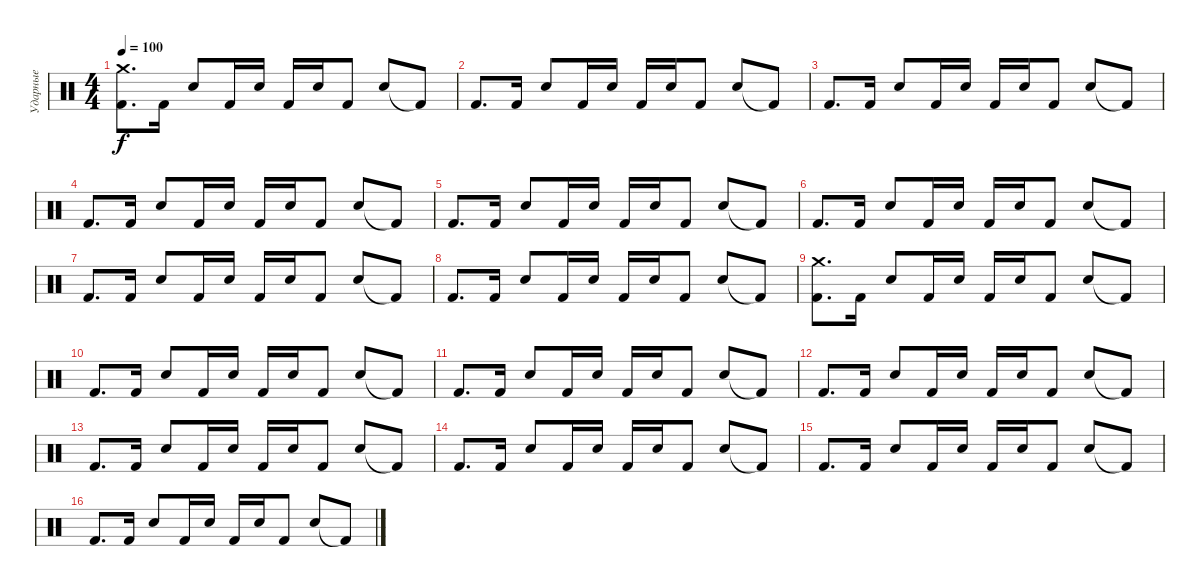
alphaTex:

\track ("Ударные" "Ударные") {instrument percussion}
\staff {score}
\articulation defaults
\ts (4 4)
\tempo 100
\clef neutral
\ks c
("Kick (hit) 2" "Crash medium (hit)").8{d dy f} "Kick (hit) 2".16 "Snare (hit) 2".8 "Kick (hit) 2".16 "Snare (hit) 2".16 "Kick (hit) 2".16 "Snare (hit) 2".16 "Kick (hit) 2".8 "Snare (hit) 2".8 "Kick (hit) 2"{t}.8 |
"Kick (hit) 2".8{d} "Kick (hit) 2".16 "Snare (hit) 2".8 "Kick (hit) 2".16 "Snare (hit) 2".16 "Kick (hit) 2".16 "Snare (hit) 2".16 "Kick (hit) 2".8 "Snare (hit) 2".8 "Kick (hit) 2"{t}.8 |
"Kick (hit) 2".8{d} "Kick (hit) 2".16 "Snare (hit) 2".8 "Kick (hit) 2".16 "Snare (hit) 2".16 "Kick (hit) 2".16 "Snare (hit) 2".16 "Kick (hit) 2".8 "Snare (hit) 2".8 "Kick (hit) 2"{t}.8 |
"Kick (hit) 2".8{d} "Kick (hit) 2".16 "Snare (hit) 2".8 "Kick (hit) 2".16 "Snare (hit) 2".16 "Kick (hit) 2".16 "Snare (hit) 2".16 "Kick (hit) 2".8 "Snare (hit) 2".8 "Kick (hit) 2"{t}.8 |
"Kick (hit) 2".8{d} "Kick (hit) 2".16 "Snare (hit) 2".8 "Kick (hit) 2".16 "Snare (hit) 2".16 "Kick (hit) 2".16 "Snare (hit) 2".16 "Kick (hit) 2".8 "Snare (hit) 2".8 "Kick (hit) 2"{t}.8 |
"Kick (hit) 2".8{d} "Kick (hit) 2".16 "Snare (hit) 2".8 "Kick (hit) 2".16 "Snare (hit) 2".16 "Kick (hit) 2".16 "Snare (hit) 2".16 "Kick (hit) 2".8 "Snare (hit) 2".8 "Kick (hit) 2"{t}.8 |
"Kick (hit) 2".8{d} "Kick (hit) 2".16 "Snare (hit) 2".8 "Kick (hit) 2".16 "Snare (hit) 2".16 "Kick (hit) 2".16 "Snare (hit) 2".16 "Kick (hit) 2".8 "Snare (hit) 2".8 "Kick (hit) 2"{t}.8 |
"Kick (hit) 2".8{d} "Kick (hit) 2".16 "Snare (hit) 2".8 "Kick (hit) 2".16 "Snare (hit) 2".16 "Kick (hit) 2".16 "Snare (hit) 2".16 "Kick (hit) 2".8 "Snare (hit) 2".8 "Kick (hit) 2"{t}.8 |
("Kick (hit) 2" "Crash medium (hit)").8{d} "Kick (hit) 2".16 "Snare (hit) 2".8 "Kick (hit) 2".16 "Snare (hit) 2".16 "Kick (hit) 2".16 "Snare (hit) 2".16 "Kick (hit) 2".8 "Snare (hit) 2".8 "Kick (hit) 2"{t}.8 |
"Kick (hit) 2".8{d} "Kick (hit) 2".16 "Snare (hit) 2".8 "Kick (hit) 2".16 "Snare (hit) 2".16 "Kick (hit) 2".16 "Snare (hit) 2".16 "Kick (hit) 2".8 "Snare (hit) 2".8 "Kick (hit) 2"{t}.8 |
"Kick (hit) 2".8{d} "Kick (hit) 2".16 "Snare (hit) 2".8 "Kick (hit) 2".16 "Snare (hit) 2".16 "Kick (hit) 2".16 "Snare (hit) 2".16 "Kick (hit) 2".8 "Snare (hit) 2".8 "Kick (hit) 2"{t}.8 |
"Kick (hit) 2".8{d} "Kick (hit) 2".16 "Snare (hit) 2".8 "Kick (hit) 2".16 "Snare (hit) 2".16 "Kick (hit) 2".16 "Snare (hit) 2".16 "Kick (hit) 2".8 "Snare (hit) 2".8 "Kick (hit) 2"{t}.8 |
"Kick (hit) 2".8{d} "Kick (hit) 2".16 "Snare (hit) 2".8 "Kick (hit) 2".16 "Snare (hit) 2".16 "Kick (hit) 2".16 "Snare (hit) 2".16 "Kick (hit) 2".8 "Snare (hit) 2".8 "Kick (hit) 2"{t}.8 |
"Kick (hit) 2".8{d} "Kick (hit) 2".16 "Snare (hit) 2".8 "Kick (hit) 2".16 "Snare (hit) 2".16 "Kick (hit) 2".16 "Snare (hit) 2".16 "Kick (hit) 2".8 "Snare (hit) 2".8 "Kick (hit) 2"{t}.8 |
"Kick (hit) 2".8{d} "Kick (hit) 2".16 "Snare (hit) 2".8 "Kick (hit) 2".16 "Snare (hit) 2".16 "Kick (hit) 2".16 "Snare (hit) 2".16 "Kick (hit) 2".8 "Snare (hit) 2".8 "Kick (hit) 2"{t}.8 |
"Kick (hit) 2".8{d} "Kick (hit) 2".16 "Snare (hit) 2".8 "Kick (hit) 2".16 "Snare (hit) 2".16 "Kick (hit) 2".16 "Snare (hit) 2".16 "Kick (hit) 2".8 "Snare (hit) 2".8 "Kick (hit) 2"{t}.8
